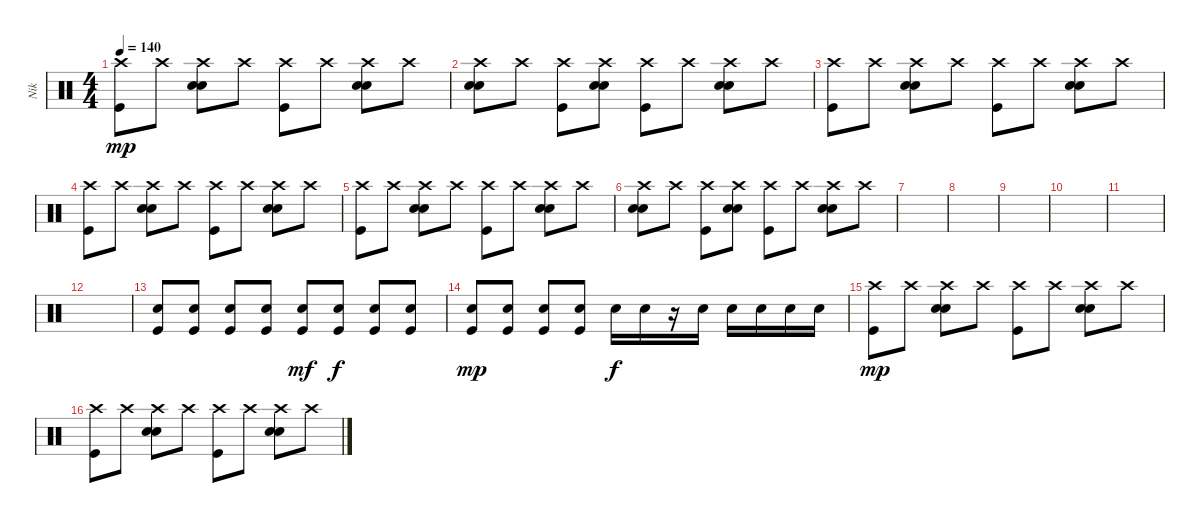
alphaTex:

\track ("Nik" "Nik") {instrument percussion}
\staff {score}
\articulation defaults
\ts (4 4)
\tempo 140
\clef neutral
\ks c
("Kick (hit)" "Crash high (hit)").8{dy mp} "Crash high (hit)".8 ("Electric Snare (hit)" "Electric Snare (hit)" "Crash high (hit)").8 "Crash high (hit)".8 ("Kick (hit)" "Crash high (hit)").8 "Crash high (hit)".8 ("Electric Snare (hit)" "Electric Snare (hit)" "Crash high (hit)").8 "Crash high (hit)".8 |
("Electric Snare (hit)" "Electric Snare (hit)" "Crash high (hit)").8 "Crash high (hit)".8 ("Kick (hit)" "Crash high (hit)").8 ("Electric Snare (hit)" "Electric Snare (hit)" "Crash high (hit)").8 ("Kick (hit)" "Crash high (hit)").8 "Crash high (hit)".8 ("Electric Snare (hit)" "Electric Snare (hit)" "Crash high (hit)").8 "Crash high (hit)".8 |
("Kick (hit)" "Crash high (hit)").8 "Crash high (hit)".8 ("Electric Snare (hit)" "Electric Snare (hit)" "Crash high (hit)").8 "Crash high (hit)".8 ("Kick (hit)" "Crash high (hit)").8 "Crash high (hit)".8 ("Electric Snare (hit)" "Electric Snare (hit)" "Crash high (hit)").8 "Crash high (hit)".8 |
("Kick (hit)" "Crash high (hit)").8 "Crash high (hit)".8 ("Electric Snare (hit)" "Electric Snare (hit)" "Crash high (hit)").8 "Crash high (hit)".8 ("Kick (hit)" "Crash high (hit)").8 "Crash high (hit)".8 ("Electric Snare (hit)" "Electric Snare (hit)" "Crash high (hit)").8 "Crash high (hit)".8 |
("Kick (hit)" "Crash high (hit)").8 "Crash high (hit)".8 ("Electric Snare (hit)" "Electric Snare (hit)" "Crash high (hit)").8 "Crash high (hit)".8 ("Kick (hit)" "Crash high (hit)").8 "Crash high (hit)".8 ("Electric Snare (hit)" "Electric Snare (hit)" "Crash high (hit)").8 "Crash high (hit)".8 |
("Electric Snare (hit)" "Electric Snare (hit)" "Crash high (hit)").8 "Crash high (hit)".8 ("Kick (hit)" "Crash high (hit)").8 ("Electric Snare (hit)" "Electric Snare (hit)" "Crash high (hit)").8 ("Kick (hit)" "Crash high (hit)").8 "Crash high (hit)".8 ("Electric Snare (hit)" "Electric Snare (hit)" "Crash high (hit)").8 "Crash high (hit)".8 |
|
|
|
|
|
|
("Kick (hit)" "Electric Snare (hit)").8 ("Kick (hit)" "Electric Snare (hit)").8 ("Kick (hit)" "Electric Snare (hit)").8 ("Kick (hit)" "Electric Snare (hit)").8 ("Kick (hit)" "Electric Snare (hit)").8{dy mf} ("Kick (hit)" "Electric Snare (hit)").8{dy f} ("Kick (hit)" "Electric Snare (hit)").8 ("Kick (hit)" "Electric Snare (hit)").8 |
("Kick (hit)" "Electric Snare (hit)").8{dy mp} ("Kick (hit)" "Electric Snare (hit)").8 ("Kick (hit)" "Electric Snare (hit)").8 ("Kick (hit)" "Electric Snare (hit)").8 "Electric Snare (hit)".16{dy f} "Electric Snare (hit)".16 r.16 "Electric Snare (hit)".16 "Electric Snare (hit)".16 "Electric Snare (hit)".16 "Electric Snare (hit)".16 "Electric Snare (hit)".16 |
("Kick (hit)" "Crash high (hit)").8{dy mp} "Crash high (hit)".8 ("Electric Snare (hit)" "Electric Snare (hit)" "Crash high (hit)").8 "Crash high (hit)".8 ("Kick (hit)" "Crash high (hit)").8 "Crash high (hit)".8 ("Electric Snare (hit)" "Electric Snare (hit)" "Crash high (hit)").8 "Crash high (hit)".8 |
("Kick (hit)" "Crash high (hit)").8 "Crash high (hit)".8 ("Electric Snare (hit)" "Electric Snare (hit)" "Crash high (hit)").8 "Crash high (hit)".8 ("Kick (hit)" "Crash high (hit)").8 "Crash high (hit)".8 ("Electric Snare (hit)" "Electric Snare (hit)" "Crash high (hit)").8 "Crash high (hit)".8
